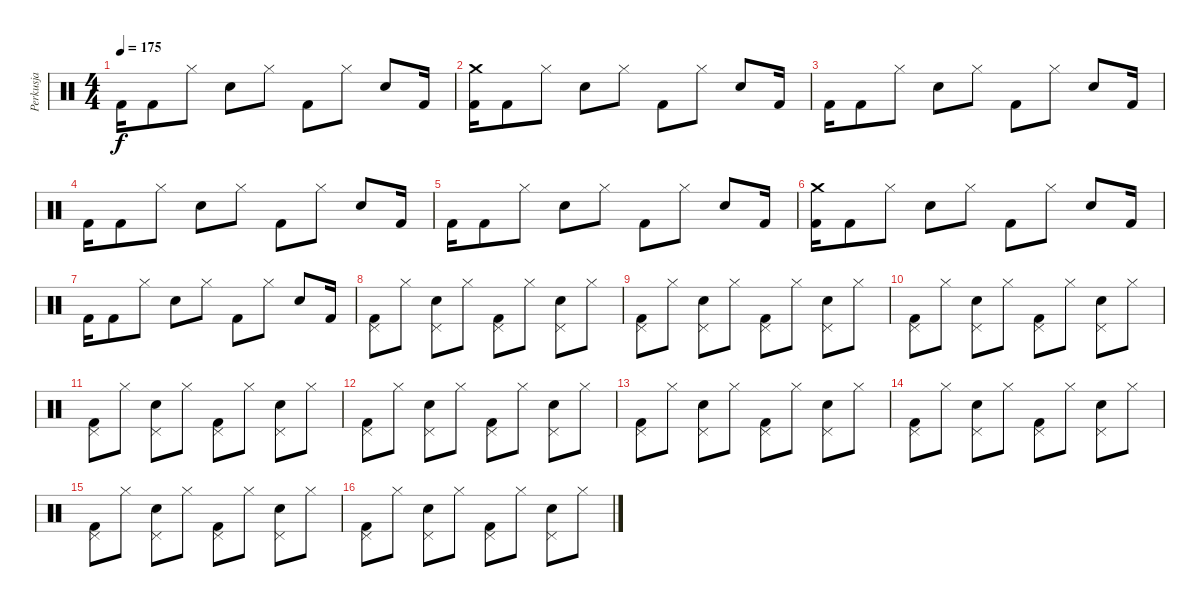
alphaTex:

\track ("Perkusja" "Perkusja") {instrument percussion}
\staff {score}
\articulation defaults
\ts (4 4)
\tempo 175
\clef neutral
\ks c "Kick (hit) 2".16{dy f} "Kick (hit) 2".8 "Hi-Hat (closed)".8 "Snare (hit) 2".8 "Hi-Hat (closed)".8 "Kick (hit) 2".8 "Hi-Hat (closed)".8 "Snare (hit) 2".8 "Kick (hit) 2".16
|
("Kick (hit) 2" "Crash medium (hit)").16 "Kick (hit) 2".8 "Hi-Hat (closed)".8 "Snare (hit) 2".8 "Hi-Hat (closed)".8 "Kick (hit) 2".8 "Hi-Hat (closed)".8 "Snare (hit) 2".8 "Kick (hit) 2".16 |
"Kick (hit) 2".16 "Kick (hit) 2".8 "Hi-Hat (closed)".8 "Snare (hit) 2".8 "Hi-Hat (closed)".8 "Kick (hit) 2".8 "Hi-Hat (closed)".8 "Snare (hit) 2".8 "Kick (hit) 2".16 |
"Kick (hit) 2".16 "Kick (hit) 2".8 "Hi-Hat (closed)".8 "Snare (hit) 2".8 "Hi-Hat (closed)".8 "Kick (hit) 2".8 "Hi-Hat (closed)".8 "Snare (hit) 2".8 "Kick (hit) 2".16 |
"Kick (hit) 2".16 "Kick (hit) 2".8 "Hi-Hat (closed)".8 "Snare (hit) 2".8 "Hi-Hat (closed)".8 "Kick (hit) 2".8 "Hi-Hat (closed)".8 "Snare (hit) 2".8 "Kick (hit) 2".16 |
("Kick (hit) 2" "Crash medium (hit)").16 "Kick (hit) 2".8 "Hi-Hat (closed)".8 "Snare (hit) 2".8 "Hi-Hat (closed)".8 "Kick (hit) 2".8 "Hi-Hat (closed)".8 "Snare (hit) 2".8 "Kick (hit) 2".16 |
"Kick (hit) 2".16 "Kick (hit) 2".8 "Hi-Hat (closed)".8 "Snare (hit) 2".8 "Hi-Hat (closed)".8 "Kick (hit) 2".8 "Hi-Hat (closed)".8 "Snare (hit) 2".8 "Kick (hit) 2".16 |
("Kick (hit) 2" "Pedal Hi-Hat (hit)").8 "Hi-Hat (closed)".8 ("Snare (hit) 2" "Pedal Hi-Hat (hit)").8 "Hi-Hat (closed)".8 ("Kick (hit) 2" "Pedal Hi-Hat (hit)").8 "Hi-Hat (closed)".8 ("Snare (hit) 2" "Pedal Hi-Hat (hit)").8 "Hi-Hat (closed)".8 |
("Kick (hit) 2" "Pedal Hi-Hat (hit)").8 "Hi-Hat (closed)".8 ("Snare (hit) 2" "Pedal Hi-Hat (hit)").8 "Hi-Hat (closed)".8 ("Kick (hit) 2" "Pedal Hi-Hat (hit)").8 "Hi-Hat (closed)".8 ("Snare (hit) 2" "Pedal Hi-Hat (hit)").8 "Hi-Hat (closed)".8 |
("Kick (hit) 2" "Pedal Hi-Hat (hit)").8 "Hi-Hat (closed)".8 ("Snare (hit) 2" "Pedal Hi-Hat (hit)").8 "Hi-Hat (closed)".8 ("Kick (hit) 2" "Pedal Hi-Hat (hit)").8 "Hi-Hat (closed)".8 ("Snare (hit) 2" "Pedal Hi-Hat (hit)").8 "Hi-Hat (closed)".8 |
("Kick (hit) 2" "Pedal Hi-Hat (hit)").8 "Hi-Hat (closed)".8 ("Snare (hit) 2" "Pedal Hi-Hat (hit)").8 "Hi-Hat (closed)".8 ("Kick (hit) 2" "Pedal Hi-Hat (hit)").8 "Hi-Hat (closed)".8 ("Snare (hit) 2" "Pedal Hi-Hat (hit)").8 "Hi-Hat (closed)".8 |
("Kick (hit) 2" "Pedal Hi-Hat (hit)").8 "Hi-Hat (closed)".8 ("Snare (hit) 2" "Pedal Hi-Hat (hit)").8 "Hi-Hat (closed)".8 ("Kick (hit) 2" "Pedal Hi-Hat (hit)").8 "Hi-Hat (closed)".8 ("Snare (hit) 2" "Pedal Hi-Hat (hit)").8 "Hi-Hat (closed)".8 |
("Kick (hit) 2" "Pedal Hi-Hat (hit)").8 "Hi-Hat (closed)".8 ("Snare (hit) 2" "Pedal Hi-Hat (hit)").8 "Hi-Hat (closed)".8 ("Kick (hit) 2" "Pedal Hi-Hat (hit)").8 "Hi-Hat (closed)".8 ("Snare (hit) 2" "Pedal Hi-Hat (hit)").8 "Hi-Hat (closed)".8 |
("Kick (hit) 2" "Pedal Hi-Hat (hit)").8 "Hi-Hat (closed)".8 ("Snare (hit) 2" "Pedal Hi-Hat (hit)").8 "Hi-Hat (closed)".8 ("Kick (hit) 2" "Pedal Hi-Hat (hit)").8 "Hi-Hat (closed)".8 ("Snare (hit) 2" "Pedal Hi-Hat (hit)").8 "Hi-Hat (closed)".8 |
("Kick (hit) 2" "Pedal Hi-Hat (hit)").8 "Hi-Hat (closed)".8 ("Snare (hit) 2" "Pedal Hi-Hat (hit)").8 "Hi-Hat (closed)".8 ("Kick (hit) 2" "Pedal Hi-Hat (hit)").8 "Hi-Hat (closed)".8 ("Snare (hit) 2" "Pedal Hi-Hat (hit)").8 "Hi-Hat (closed)".8 |
("Kick (hit) 2" "Pedal Hi-Hat (hit)").8 "Hi-Hat (closed)".8 ("Snare (hit) 2" "Pedal Hi-Hat (hit)").8 "Hi-Hat (closed)".8 ("Kick (hit) 2" "Pedal Hi-Hat (hit)").8 "Hi-Hat (closed)".8 ("Snare (hit) 2" "Pedal Hi-Hat (hit)").8 "Hi-Hat (closed)".8
